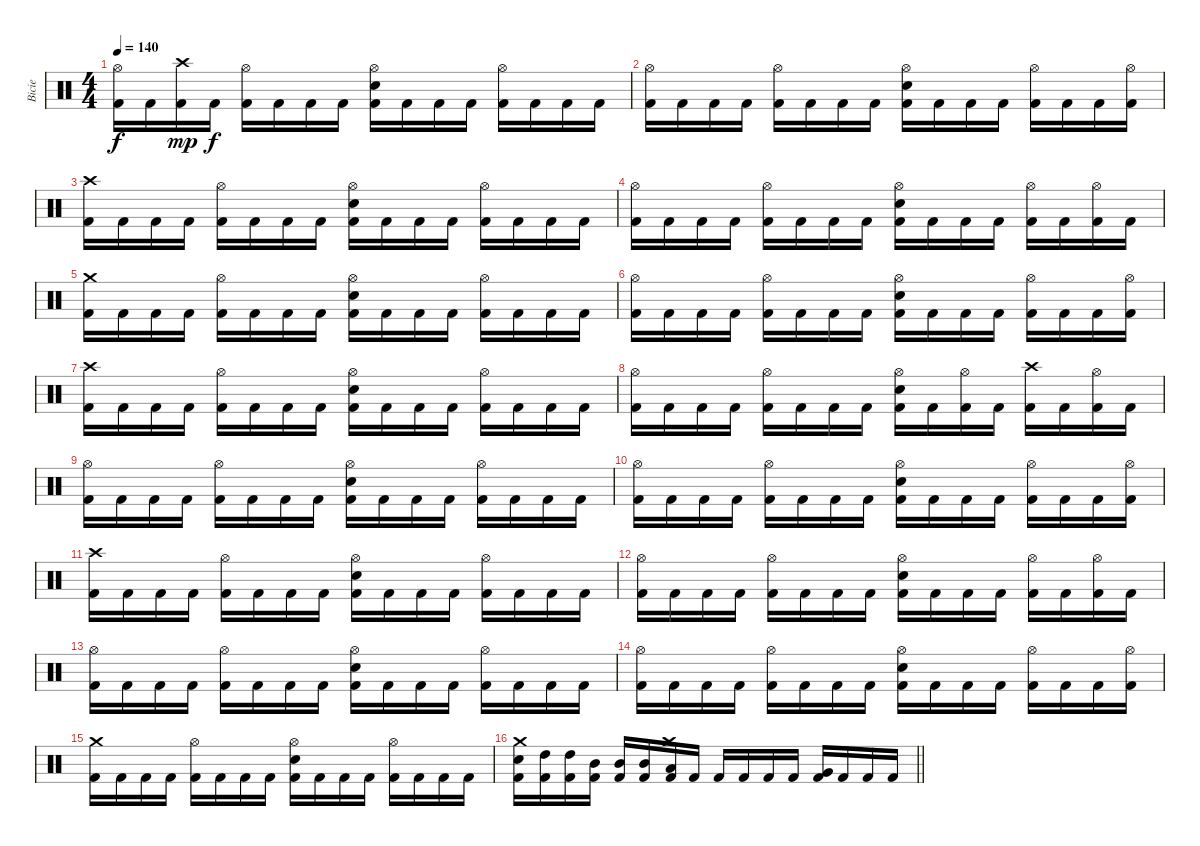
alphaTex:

\track ("Bicie" "Bicie") {instrument percussion}
\staff {score}
\articulation defaults
\ts (4 4)
\tempo 140
\clef neutral
\ks c
("Hi-Hat (open)" "Kick (hit) 2").16{dy f} "Kick (hit) 2".16 ("Crash high (hit)" "Kick (hit) 2").16{dy mp} "Kick (hit) 2".16{dy f} ("Hi-Hat (open)" "Kick (hit) 2").16 "Kick (hit) 2".16 "Kick (hit) 2".16 "Kick (hit) 2".16 ("Hi-Hat (open)" "Snare (hit) 2" "Kick (hit) 2").16 "Kick (hit) 2".16 "Kick (hit) 2".16 "Kick (hit) 2".16 ("Hi-Hat (open)" "Kick (hit) 2").16 "Kick (hit) 2".16 "Kick (hit) 2".16 "Kick (hit) 2".16 |
("Hi-Hat (open)" "Kick (hit) 2").16 "Kick (hit) 2".16 "Kick (hit) 2".16 "Kick (hit) 2".16 ("Hi-Hat (open)" "Kick (hit) 2").16 "Kick (hit) 2".16 "Kick (hit) 2".16 "Kick (hit) 2".16 ("Hi-Hat (open)" "Snare (hit) 2" "Kick (hit) 2").16 "Kick (hit) 2".16 "Kick (hit) 2".16 "Kick (hit) 2".16 ("Hi-Hat (open)" "Kick (hit) 2").16 "Kick (hit) 2".16 "Kick (hit) 2".16 ("Hi-Hat (open)" "Kick (hit) 2").16 |
("Crash high (hit)" "Kick (hit) 2").16 "Kick (hit) 2".16 "Kick (hit) 2".16 "Kick (hit) 2".16 ("Hi-Hat (open)" "Kick (hit) 2").16 "Kick (hit) 2".16 "Kick (hit) 2".16 "Kick (hit) 2".16 ("Hi-Hat (open)" "Snare (hit) 2" "Kick (hit) 2").16 "Kick (hit) 2".16 "Kick (hit) 2".16 "Kick (hit) 2".16 ("Hi-Hat (open)" "Kick (hit) 2").16 "Kick (hit) 2".16 "Kick (hit) 2".16 "Kick (hit) 2".16 |
("Hi-Hat (open)" "Kick (hit) 2").16 "Kick (hit) 2".16 "Kick (hit) 2".16 "Kick (hit) 2".16 ("Hi-Hat (open)" "Kick (hit) 2").16 "Kick (hit) 2".16 "Kick (hit) 2".16 "Kick (hit) 2".16 ("Hi-Hat (open)" "Snare (hit) 2" "Kick (hit) 2").16 "Kick (hit) 2".16 "Kick (hit) 2".16 "Kick (hit) 2".16 ("Hi-Hat (open)" "Kick (hit) 2").16 "Kick (hit) 2".16 ("Hi-Hat (open)" "Kick (hit) 2").16 "Kick (hit) 2".16 |
("Crash medium (hit)" "Kick (hit) 2").16 "Kick (hit) 2".16 "Kick (hit) 2".16 "Kick (hit) 2".16 ("Hi-Hat (open)" "Kick (hit) 2").16 "Kick (hit) 2".16 "Kick (hit) 2".16 "Kick (hit) 2".16 ("Hi-Hat (open)" "Snare (hit) 2" "Kick (hit) 2").16 "Kick (hit) 2".16 "Kick (hit) 2".16 "Kick (hit) 2".16 ("Hi-Hat (open)" "Kick (hit) 2").16 "Kick (hit) 2".16 "Kick (hit) 2".16 "Kick (hit) 2".16 |
("Hi-Hat (open)" "Kick (hit) 2").16 "Kick (hit) 2".16 "Kick (hit) 2".16 "Kick (hit) 2".16 ("Hi-Hat (open)" "Kick (hit) 2").16 "Kick (hit) 2".16 "Kick (hit) 2".16 "Kick (hit) 2".16 ("Hi-Hat (open)" "Snare (hit) 2" "Kick (hit) 2").16 "Kick (hit) 2".16 "Kick (hit) 2".16 "Kick (hit) 2".16 ("Hi-Hat (open)" "Kick (hit) 2").16 "Kick (hit) 2".16 "Kick (hit) 2".16 ("Hi-Hat (open)" "Kick (hit) 2").16 |
("Crash high (hit)" "Kick (hit) 2").16 "Kick (hit) 2".16 "Kick (hit) 2".16 "Kick (hit) 2".16 ("Hi-Hat (open)" "Kick (hit) 2").16 "Kick (hit) 2".16 "Kick (hit) 2".16 "Kick (hit) 2".16 ("Hi-Hat (open)" "Snare (hit) 2" "Kick (hit) 2").16 "Kick (hit) 2".16 "Kick (hit) 2".16 "Kick (hit) 2".16 ("Hi-Hat (open)" "Kick (hit) 2").16 "Kick (hit) 2".16 "Kick (hit) 2".16 "Kick (hit) 2".16 |
("Hi-Hat (open)" "Kick (hit) 2").16 "Kick (hit) 2".16 "Kick (hit) 2".16 "Kick (hit) 2".16 ("Hi-Hat (open)" "Kick (hit) 2").16 "Kick (hit) 2".16 "Kick (hit) 2".16 "Kick (hit) 2".16 ("Hi-Hat (open)" "Snare (hit) 2" "Kick (hit) 2").16 "Kick (hit) 2".16 ("Hi-Hat (open)" "Kick (hit) 2").16 "Kick (hit) 2".16 ("Crash high (hit)" "Kick (hit) 2").16 "Kick (hit) 2".16 ("Hi-Hat (open)" "Kick (hit) 2").16 "Kick (hit) 2".16 |
("Hi-Hat (open)" "Kick (hit) 2").16 "Kick (hit) 2".16 "Kick (hit) 2".16 "Kick (hit) 2".16 ("Hi-Hat (open)" "Kick (hit) 2").16 "Kick (hit) 2".16 "Kick (hit) 2".16 "Kick (hit) 2".16 ("Hi-Hat (open)" "Snare (hit) 2" "Kick (hit) 2").16 "Kick (hit) 2".16 "Kick (hit) 2".16 "Kick (hit) 2".16 ("Hi-Hat (open)" "Kick (hit) 2").16 "Kick (hit) 2".16 "Kick (hit) 2".16 "Kick (hit) 2".16 |
("Hi-Hat (open)" "Kick (hit) 2").16 "Kick (hit) 2".16 "Kick (hit) 2".16 "Kick (hit) 2".16 ("Hi-Hat (open)" "Kick (hit) 2").16 "Kick (hit) 2".16 "Kick (hit) 2".16 "Kick (hit) 2".16 ("Hi-Hat (open)" "Snare (hit) 2" "Kick (hit) 2").16 "Kick (hit) 2".16 "Kick (hit) 2".16 "Kick (hit) 2".16 ("Hi-Hat (open)" "Kick (hit) 2").16 "Kick (hit) 2".16 "Kick (hit) 2".16 ("Hi-Hat (open)" "Kick (hit) 2").16 |
("Crash high (hit)" "Kick (hit) 2").16 "Kick (hit) 2".16 "Kick (hit) 2".16 "Kick (hit) 2".16 ("Hi-Hat (open)" "Kick (hit) 2").16 "Kick (hit) 2".16 "Kick (hit) 2".16 "Kick (hit) 2".16 ("Hi-Hat (open)" "Snare (hit) 2" "Kick (hit) 2").16 "Kick (hit) 2".16 "Kick (hit) 2".16 "Kick (hit) 2".16 ("Hi-Hat (open)" "Kick (hit) 2").16 "Kick (hit) 2".16 "Kick (hit) 2".16 "Kick (hit) 2".16 |
("Hi-Hat (open)" "Kick (hit) 2").16 "Kick (hit) 2".16 "Kick (hit) 2".16 "Kick (hit) 2".16 ("Hi-Hat (open)" "Kick (hit) 2").16 "Kick (hit) 2".16 "Kick (hit) 2".16 "Kick (hit) 2".16 ("Hi-Hat (open)" "Snare (hit) 2" "Kick (hit) 2").16 "Kick (hit) 2".16 "Kick (hit) 2".16 "Kick (hit) 2".16 ("Hi-Hat (open)" "Kick (hit) 2").16 "Kick (hit) 2".16 ("Hi-Hat (open)" "Kick (hit) 2").16 "Kick (hit) 2".16 |
("Hi-Hat (open)" "Kick (hit) 2").16 "Kick (hit) 2".16 "Kick (hit) 2".16 "Kick (hit) 2".16 ("Hi-Hat (open)" "Kick (hit) 2").16 "Kick (hit) 2".16 "Kick (hit) 2".16 "Kick (hit) 2".16 ("Hi-Hat (open)" "Snare (hit) 2" "Kick (hit) 2").16 "Kick (hit) 2".16 "Kick (hit) 2".16 "Kick (hit) 2".16 ("Hi-Hat (open)" "Kick (hit) 2").16 "Kick (hit) 2".16 "Kick (hit) 2".16 "Kick (hit) 2".16 |
("Hi-Hat (open)" "Kick (hit) 2").16 "Kick (hit) 2".16 "Kick (hit) 2".16 "Kick (hit) 2".16 ("Hi-Hat (open)" "Kick (hit) 2").16 "Kick (hit) 2".16 "Kick (hit) 2".16 "Kick (hit) 2".16 ("Hi-Hat (open)" "Snare (hit) 2" "Kick (hit) 2").16 "Kick (hit) 2".16 "Kick (hit) 2".16 "Kick (hit) 2".16 ("Hi-Hat (open)" "Kick (hit) 2").16 "Kick (hit) 2".16 "Kick (hit) 2".16 ("Hi-Hat (open)" "Kick (hit) 2").16 |
("Crash medium (hit)" "Kick (hit) 2").16 "Kick (hit) 2".16 "Kick (hit) 2".16 "Kick (hit) 2".16 ("Hi-Hat (open)" "Kick (hit) 2").16 "Kick (hit) 2".16 "Kick (hit) 2".16 "Kick (hit) 2".16 ("Hi-Hat (open)" "Snare (hit) 2" "Kick (hit) 2").16 "Kick (hit) 2".16 "Kick (hit) 2".16 "Kick (hit) 2".16 ("Hi-Hat (open)" "Kick (hit) 2").16 "Kick (hit) 2".16 "Kick (hit) 2".16 "Kick (hit) 2".16 |
\barLineRight lightlight
("Crash medium (hit)" "Snare (hit) 2" "Kick (hit) 2").16 ("High Tom (hit)" "Kick (hit) 2").16 ("High Tom (hit)" "Kick (hit) 2").16 ("Mid Tom (hit)" "Kick (hit) 2").16 ("Mid Tom (hit)" "Kick (hit) 2").16 ("Mid Tom (hit)" "Kick (hit) 2").16 ("Crash medium (hit)" "Low Tom (hit)" "Kick (hit) 2").16 "Kick (hit) 2".16 "Kick (hit) 2".16 "Kick (hit) 2".16 "Kick (hit) 2".16 "Kick (hit) 2".16 ("Very Low Tom (hit)" "Kick (hit) 2").16 "Kick (hit) 2".16 "Kick (hit) 2".16 "Kick (hit) 2".16
